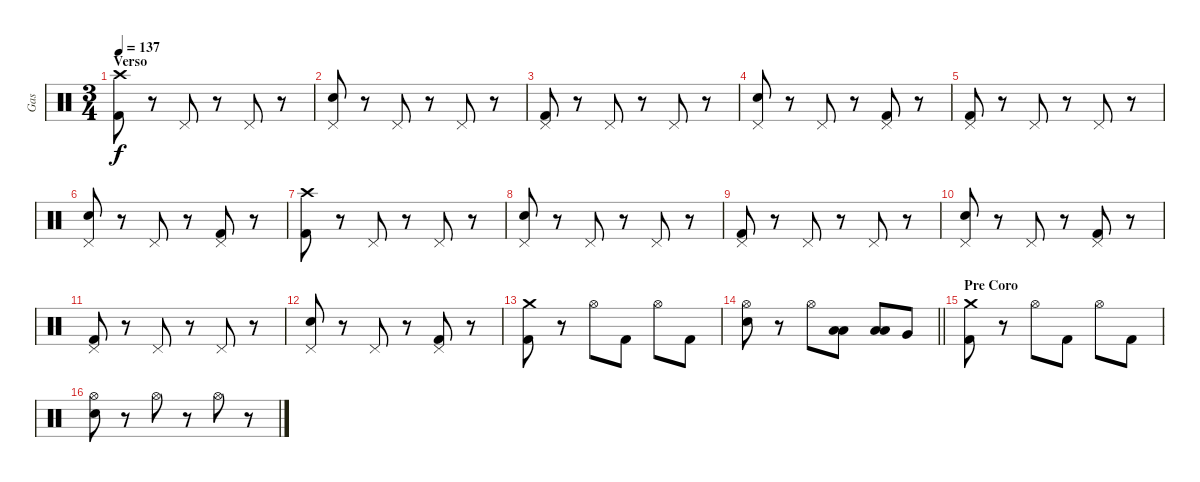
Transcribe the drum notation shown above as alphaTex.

\track ("Gas" "Gas") {instrument percussion}
\staff {score}
\articulation defaults
\ts (3 4)
\section ("" "Verso")
\tempo 137
\clef neutral
\ks c
("Crash high (hit)" "Kick (hit) 2").8{dy f} r.8 "Pedal Hi-Hat (hit)".8 r.8 "Pedal Hi-Hat (hit)".8 r.8 |
("Pedal Hi-Hat (hit)" "Snare (hit) 2").8 r.8 "Pedal Hi-Hat (hit)".8 r.8 "Pedal Hi-Hat (hit)".8 r.8 |
("Pedal Hi-Hat (hit)" "Kick (hit) 2").8 r.8 "Pedal Hi-Hat (hit)".8 r.8 "Pedal Hi-Hat (hit)".8 r.8 |
("Pedal Hi-Hat (hit)" "Snare (hit) 2").8 r.8 "Pedal Hi-Hat (hit)".8 r.8 ("Pedal Hi-Hat (hit)" "Kick (hit) 2").8 r.8 |
("Pedal Hi-Hat (hit)" "Kick (hit) 2").8 r.8 "Pedal Hi-Hat (hit)".8 r.8 "Pedal Hi-Hat (hit)".8 r.8 |
("Pedal Hi-Hat (hit)" "Snare (hit) 2").8 r.8 "Pedal Hi-Hat (hit)".8 r.8 ("Pedal Hi-Hat (hit)" "Kick (hit) 2").8 r.8 |
("Crash high (hit)" "Kick (hit) 2").8 r.8 "Pedal Hi-Hat (hit)".8 r.8 "Pedal Hi-Hat (hit)".8 r.8 |
("Pedal Hi-Hat (hit)" "Snare (hit) 2").8 r.8 "Pedal Hi-Hat (hit)".8 r.8 "Pedal Hi-Hat (hit)".8 r.8 |
("Pedal Hi-Hat (hit)" "Kick (hit) 2").8 r.8 "Pedal Hi-Hat (hit)".8 r.8 "Pedal Hi-Hat (hit)".8 r.8 |
("Pedal Hi-Hat (hit)" "Snare (hit) 2").8 r.8 "Pedal Hi-Hat (hit)".8 r.8 ("Pedal Hi-Hat (hit)" "Kick (hit) 2").8 r.8 |
("Pedal Hi-Hat (hit)" "Kick (hit) 2").8 r.8 "Pedal Hi-Hat (hit)".8 r.8 "Pedal Hi-Hat (hit)".8 r.8 |
("Pedal Hi-Hat (hit)" "Snare (hit) 2").8 r.8 "Pedal Hi-Hat (hit)".8 r.8 ("Pedal Hi-Hat (hit)" "Kick (hit) 2").8 r.8 |
("Crash medium (hit)" "Kick (hit) 2").8 r.8 "Hi-Hat (open)".8 "Kick (hit) 2".8 "Hi-Hat (open)".8 "Kick (hit) 2".8 |
\barLineRight lightlight
("Hi-Hat (open)" "Snare (hit) 2").8 r.8 "Hi-Hat (open)".8 ("Low Tom (hit)" "Low Tom (hit)").8{bd 60} ("Low Tom (hit)" "Low Tom (hit)").8{bd 60} "Very Low Tom (hit)".8 |
\section ("" "Pre Coro")
("Crash medium (hit)" "Kick (hit) 2").8 r.8 "Hi-Hat (open)".8 "Kick (hit) 2".8 "Hi-Hat (open)".8 "Kick (hit) 2".8 |
("Hi-Hat (open)" "Snare (hit) 2").8 r.8 "Hi-Hat (open)".8 r.8 "Hi-Hat (open)".8 r.8
